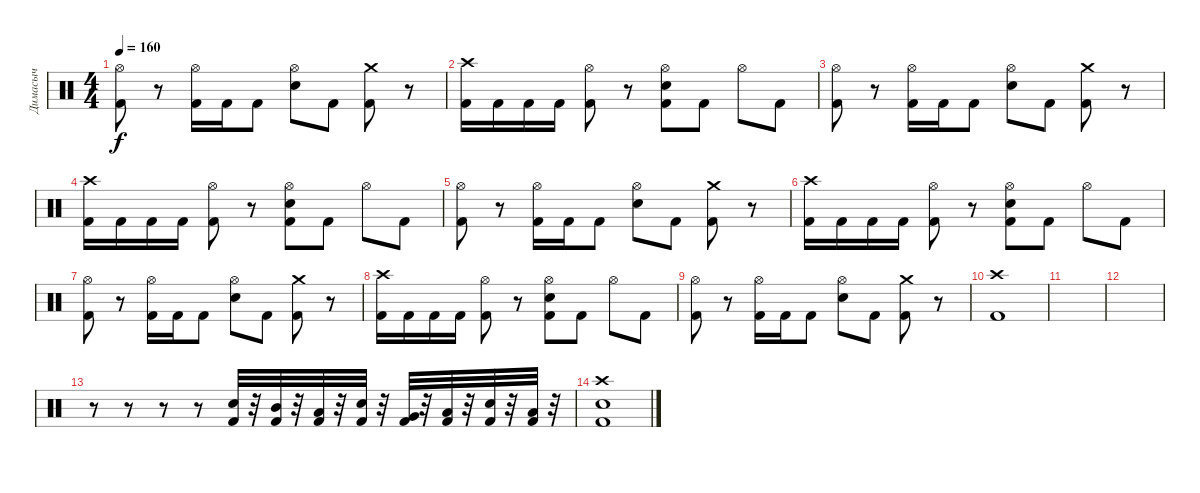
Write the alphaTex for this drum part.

\track ("Димасыч" "Димасыч") {instrument percussion}
\staff {score}
\articulation defaults
\ts (4 4)
\tempo 160
\clef neutral
\ks c
("Hi-Hat (open)" "Kick (hit) 2").8{dy f} r.8 ("Hi-Hat (open)" "Kick (hit) 2").16 "Kick (hit) 2".16 "Kick (hit) 2".8 ("Hi-Hat (open)" "Electric Snare (hit)").8 "Kick (hit) 2".8 ("Crash medium (hit)" "Kick (hit) 2").8 r.8 |
("Crash high (hit)" "Kick (hit) 2").16 "Kick (hit) 2".16 "Kick (hit) 2".16 "Kick (hit) 2".16 ("Hi-Hat (open)" "Kick (hit) 2").8 r.8 ("Hi-Hat (open)" "Electric Snare (hit)" "Kick (hit) 2").8 "Kick (hit) 2".8 "Hi-Hat (open)".8 "Kick (hit) 2".8 |
("Hi-Hat (open)" "Kick (hit) 2").8 r.8 ("Hi-Hat (open)" "Kick (hit) 2").16 "Kick (hit) 2".16 "Kick (hit) 2".8 ("Hi-Hat (open)" "Electric Snare (hit)").8 "Kick (hit) 2".8 ("Crash medium (hit)" "Kick (hit) 2").8 r.8 |
("Crash high (hit)" "Kick (hit) 2").16 "Kick (hit) 2".16 "Kick (hit) 2".16 "Kick (hit) 2".16 ("Hi-Hat (open)" "Kick (hit) 2").8 r.8 ("Hi-Hat (open)" "Electric Snare (hit)" "Kick (hit) 2").8 "Kick (hit) 2".8 "Hi-Hat (open)".8 "Kick (hit) 2".8 |
("Hi-Hat (open)" "Kick (hit) 2").8 r.8 ("Hi-Hat (open)" "Kick (hit) 2").16 "Kick (hit) 2".16 "Kick (hit) 2".8 ("Hi-Hat (open)" "Electric Snare (hit)").8 "Kick (hit) 2".8 ("Crash medium (hit)" "Kick (hit) 2").8 r.8 |
("Crash high (hit)" "Kick (hit) 2").16 "Kick (hit) 2".16 "Kick (hit) 2".16 "Kick (hit) 2".16 ("Hi-Hat (open)" "Kick (hit) 2").8 r.8 ("Hi-Hat (open)" "Electric Snare (hit)" "Kick (hit) 2").8 "Kick (hit) 2".8 "Hi-Hat (open)".8 "Kick (hit) 2".8 |
("Hi-Hat (open)" "Kick (hit) 2").8 r.8 ("Hi-Hat (open)" "Kick (hit) 2").16 "Kick (hit) 2".16 "Kick (hit) 2".8 ("Hi-Hat (open)" "Electric Snare (hit)").8 "Kick (hit) 2".8 ("Crash medium (hit)" "Kick (hit) 2").8 r.8 |
("Crash high (hit)" "Kick (hit) 2").16 "Kick (hit) 2".16 "Kick (hit) 2".16 "Kick (hit) 2".16 ("Hi-Hat (open)" "Kick (hit) 2").8 r.8 ("Hi-Hat (open)" "Electric Snare (hit)" "Kick (hit) 2").8 "Kick (hit) 2".8 "Hi-Hat (open)".8 "Kick (hit) 2".8 |
("Hi-Hat (open)" "Kick (hit) 2").8 r.8 ("Hi-Hat (open)" "Kick (hit) 2").16 "Kick (hit) 2".16 "Kick (hit) 2".8 ("Hi-Hat (open)" "Electric Snare (hit)").8 "Kick (hit) 2".8 ("Crash medium (hit)" "Kick (hit) 2").8 r.8 |
("Crash high (hit)" "Kick (hit) 2").1 |
|
|
r.8 r.8 r.8 r.8 ("Electric Snare (hit)" "Kick (hit) 2").32 r.32 ("Mid Tom (hit)" "Kick (hit) 2").32 r.32 ("Low Tom (hit)" "Kick (hit) 2").32 r.32 ("Electric Snare (hit)" "Kick (hit) 2").32 r.32 ("Very Low Tom (hit)" "Kick (hit) 2").32 r.32 ("Low Floor Tom (hit)" "Kick (hit) 2").32 r.32 ("Electric Snare (hit)" "Kick (hit) 2").32 r.32 ("Low Floor Tom (hit)" "Kick (hit) 2").32 r.32 |
("Crash high (hit)" "Electric Snare (hit)" "Kick (hit) 2").1
